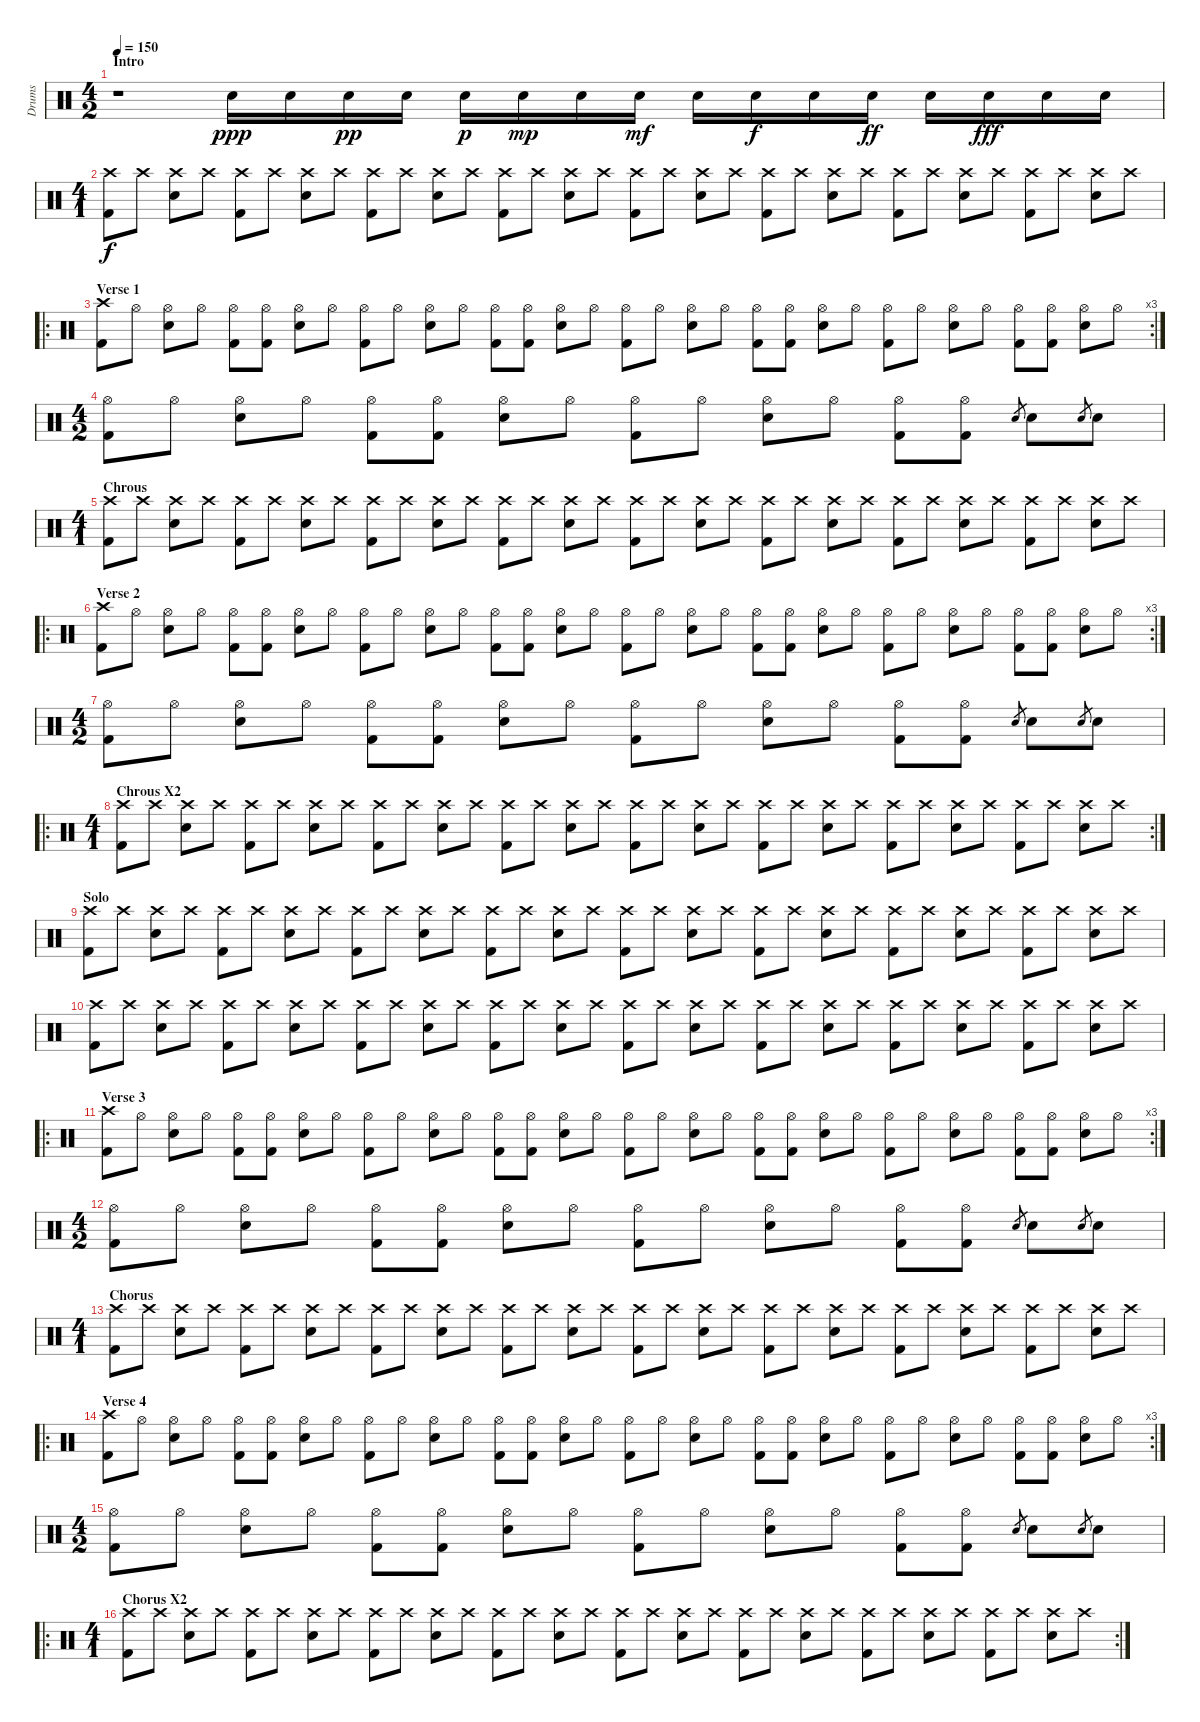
\track ("Drums" "Drums") {instrument percussion}
\staff {score}
\articulation defaults
\ts (4 2)
\section ("" "Intro")
\tempo 150
\clef neutral
\ks c
r.1{dy ppp} "Electric Snare (hit)".16 "Electric Snare (hit)".16 "Electric Snare (hit)".16{dy pp} "Electric Snare (hit)".16 "Electric Snare (hit)".16{dy p} "Electric Snare (hit)".16{dy mp} "Electric Snare (hit)".16 "Electric Snare (hit)".16{dy mf} "Electric Snare (hit)".16 "Electric Snare (hit)".16{dy f} "Electric Snare (hit)".16 "Electric Snare (hit)".16{dy ff} "Electric Snare (hit)".16 "Electric Snare (hit)".16{dy fff} "Electric Snare (hit)".16 "Electric Snare (hit)".16 |
\ts (4 1)
("Crash high (hit)" "Kick (hit) 2").8{dy f} "Crash high (hit)".8 ("Crash high (hit)" "Electric Snare (hit)").8 "Crash high (hit)".8 ("Crash high (hit)" "Kick (hit) 2").8 "Crash high (hit)".8 ("Crash high (hit)" "Electric Snare (hit)").8 "Crash high (hit)".8 ("Crash high (hit)" "Kick (hit) 2").8 "Crash high (hit)".8 ("Crash high (hit)" "Electric Snare (hit)").8 "Crash high (hit)".8 ("Crash high (hit)" "Kick (hit) 2").8 "Crash high (hit)".8 ("Crash high (hit)" "Electric Snare (hit)").8 "Crash high (hit)".8 ("Crash high (hit)" "Kick (hit) 2").8 "Crash high (hit)".8 ("Crash high (hit)" "Electric Snare (hit)").8 "Crash high (hit)".8 ("Crash high (hit)" "Kick (hit) 2").8 "Crash high (hit)".8 ("Crash high (hit)" "Electric Snare (hit)").8 "Crash high (hit)".8 ("Crash high (hit)" "Kick (hit) 2").8 "Crash high (hit)".8 ("Crash high (hit)" "Electric Snare (hit)").8 "Crash high (hit)".8 ("Crash high (hit)" "Kick (hit) 2").8 "Crash high (hit)".8 ("Crash high (hit)" "Electric Snare (hit)").8 "Crash high (hit)".8 |
\ro
\rc 3
\section ("" "Verse 1")
("Crash high (hit)" "Kick (hit) 2").8 "Hi-Hat (open)".8 ("Hi-Hat (open)" "Electric Snare (hit)").8 "Hi-Hat (open)".8 ("Hi-Hat (open)" "Kick (hit) 2").8 ("Hi-Hat (open)" "Kick (hit) 2").8 ("Hi-Hat (open)" "Electric Snare (hit)").8 "Hi-Hat (open)".8 ("Hi-Hat (open)" "Kick (hit) 2").8 "Hi-Hat (open)".8 ("Hi-Hat (open)" "Electric Snare (hit)").8 "Hi-Hat (open)".8 ("Hi-Hat (open)" "Kick (hit) 2").8 ("Hi-Hat (open)" "Kick (hit) 2").8 ("Hi-Hat (open)" "Electric Snare (hit)").8 "Hi-Hat (open)".8 ("Hi-Hat (open)" "Kick (hit) 2").8 "Hi-Hat (open)".8 ("Hi-Hat (open)" "Electric Snare (hit)").8 "Hi-Hat (open)".8 ("Hi-Hat (open)" "Kick (hit) 2").8 ("Hi-Hat (open)" "Kick (hit) 2").8 ("Hi-Hat (open)" "Electric Snare (hit)").8 "Hi-Hat (open)".8 ("Hi-Hat (open)" "Kick (hit) 2").8 "Hi-Hat (open)".8 ("Hi-Hat (open)" "Electric Snare (hit)").8 "Hi-Hat (open)".8 ("Hi-Hat (open)" "Kick (hit) 2").8 ("Hi-Hat (open)" "Kick (hit) 2").8 ("Hi-Hat (open)" "Electric Snare (hit)").8 "Hi-Hat (open)".8 |
\ts (4 2)
("Hi-Hat (open)" "Kick (hit) 2").8 "Hi-Hat (open)".8 ("Hi-Hat (open)" "Electric Snare (hit)").8 "Hi-Hat (open)".8 ("Hi-Hat (open)" "Kick (hit) 2").8 ("Hi-Hat (open)" "Kick (hit) 2").8 ("Hi-Hat (open)" "Electric Snare (hit)").8 "Hi-Hat (open)".8 ("Hi-Hat (open)" "Kick (hit) 2").8 "Hi-Hat (open)".8 ("Hi-Hat (open)" "Electric Snare (hit)").8 "Hi-Hat (open)".8 ("Hi-Hat (open)" "Kick (hit) 2").8 ("Hi-Hat (open)" "Kick (hit) 2").8 "Electric Snare (hit)".8{gr} "Electric Snare (hit)".8 "Electric Snare (hit)".8{gr} "Electric Snare (hit)".8 |
\ts (4 1)
\section ("" "Chrous")
("Crash high (hit)" "Kick (hit) 2").8 "Crash high (hit)".8 ("Crash high (hit)" "Electric Snare (hit)").8 "Crash high (hit)".8 ("Crash high (hit)" "Kick (hit) 2").8 "Crash high (hit)".8 ("Crash high (hit)" "Electric Snare (hit)").8 "Crash high (hit)".8 ("Crash high (hit)" "Kick (hit) 2").8 "Crash high (hit)".8 ("Crash high (hit)" "Electric Snare (hit)").8 "Crash high (hit)".8 ("Crash high (hit)" "Kick (hit) 2").8 "Crash high (hit)".8 ("Crash high (hit)" "Electric Snare (hit)").8 "Crash high (hit)".8 ("Crash high (hit)" "Kick (hit) 2").8 "Crash high (hit)".8 ("Crash high (hit)" "Electric Snare (hit)").8 "Crash high (hit)".8 ("Crash high (hit)" "Kick (hit) 2").8 "Crash high (hit)".8 ("Crash high (hit)" "Electric Snare (hit)").8 "Crash high (hit)".8 ("Crash high (hit)" "Kick (hit) 2").8 "Crash high (hit)".8 ("Crash high (hit)" "Electric Snare (hit)").8 "Crash high (hit)".8 ("Crash high (hit)" "Kick (hit) 2").8 "Crash high (hit)".8 ("Crash high (hit)" "Electric Snare (hit)").8 "Crash high (hit)".8 |
\ro
\rc 3
\section ("" "Verse 2")
("Crash high (hit)" "Kick (hit) 2").8 "Hi-Hat (open)".8 ("Hi-Hat (open)" "Electric Snare (hit)").8 "Hi-Hat (open)".8 ("Hi-Hat (open)" "Kick (hit) 2").8 ("Hi-Hat (open)" "Kick (hit) 2").8 ("Hi-Hat (open)" "Electric Snare (hit)").8 "Hi-Hat (open)".8 ("Hi-Hat (open)" "Kick (hit) 2").8 "Hi-Hat (open)".8 ("Hi-Hat (open)" "Electric Snare (hit)").8 "Hi-Hat (open)".8 ("Hi-Hat (open)" "Kick (hit) 2").8 ("Hi-Hat (open)" "Kick (hit) 2").8 ("Hi-Hat (open)" "Electric Snare (hit)").8 "Hi-Hat (open)".8 ("Hi-Hat (open)" "Kick (hit) 2").8 "Hi-Hat (open)".8 ("Hi-Hat (open)" "Electric Snare (hit)").8 "Hi-Hat (open)".8 ("Hi-Hat (open)" "Kick (hit) 2").8 ("Hi-Hat (open)" "Kick (hit) 2").8 ("Hi-Hat (open)" "Electric Snare (hit)").8 "Hi-Hat (open)".8 ("Hi-Hat (open)" "Kick (hit) 2").8 "Hi-Hat (open)".8 ("Hi-Hat (open)" "Electric Snare (hit)").8 "Hi-Hat (open)".8 ("Hi-Hat (open)" "Kick (hit) 2").8 ("Hi-Hat (open)" "Kick (hit) 2").8 ("Hi-Hat (open)" "Electric Snare (hit)").8 "Hi-Hat (open)".8 |
\ts (4 2)
("Hi-Hat (open)" "Kick (hit) 2").8 "Hi-Hat (open)".8 ("Hi-Hat (open)" "Electric Snare (hit)").8 "Hi-Hat (open)".8 ("Hi-Hat (open)" "Kick (hit) 2").8 ("Hi-Hat (open)" "Kick (hit) 2").8 ("Hi-Hat (open)" "Electric Snare (hit)").8 "Hi-Hat (open)".8 ("Hi-Hat (open)" "Kick (hit) 2").8 "Hi-Hat (open)".8 ("Hi-Hat (open)" "Electric Snare (hit)").8 "Hi-Hat (open)".8 ("Hi-Hat (open)" "Kick (hit) 2").8 ("Hi-Hat (open)" "Kick (hit) 2").8 "Electric Snare (hit)".8{gr} "Electric Snare (hit)".8 "Electric Snare (hit)".8{gr} "Electric Snare (hit)".8 |
\ro
\rc 2
\ts (4 1)
\section ("" "Chrous X2")
("Crash high (hit)" "Kick (hit) 2").8 "Crash high (hit)".8 ("Crash high (hit)" "Electric Snare (hit)").8 "Crash high (hit)".8 ("Crash high (hit)" "Kick (hit) 2").8 "Crash high (hit)".8 ("Crash high (hit)" "Electric Snare (hit)").8 "Crash high (hit)".8 ("Crash high (hit)" "Kick (hit) 2").8 "Crash high (hit)".8 ("Crash high (hit)" "Electric Snare (hit)").8 "Crash high (hit)".8 ("Crash high (hit)" "Kick (hit) 2").8 "Crash high (hit)".8 ("Crash high (hit)" "Electric Snare (hit)").8 "Crash high (hit)".8 ("Crash high (hit)" "Kick (hit) 2").8 "Crash high (hit)".8 ("Crash high (hit)" "Electric Snare (hit)").8 "Crash high (hit)".8 ("Crash high (hit)" "Kick (hit) 2").8 "Crash high (hit)".8 ("Crash high (hit)" "Electric Snare (hit)").8 "Crash high (hit)".8 ("Crash high (hit)" "Kick (hit) 2").8 "Crash high (hit)".8 ("Crash high (hit)" "Electric Snare (hit)").8 "Crash high (hit)".8 ("Crash high (hit)" "Kick (hit) 2").8 "Crash high (hit)".8 ("Crash high (hit)" "Electric Snare (hit)").8 "Crash high (hit)".8 |
\section ("" "Solo")
("Crash high (hit)" "Kick (hit) 2").8 "Crash high (hit)".8 ("Crash high (hit)" "Electric Snare (hit)").8 "Crash high (hit)".8 ("Crash high (hit)" "Kick (hit) 2").8 "Crash high (hit)".8 ("Crash high (hit)" "Electric Snare (hit)").8 "Crash high (hit)".8 ("Crash high (hit)" "Kick (hit) 2").8 "Crash high (hit)".8 ("Crash high (hit)" "Electric Snare (hit)").8 "Crash high (hit)".8 ("Crash high (hit)" "Kick (hit) 2").8 "Crash high (hit)".8 ("Crash high (hit)" "Electric Snare (hit)").8 "Crash high (hit)".8 ("Crash high (hit)" "Kick (hit) 2").8 "Crash high (hit)".8 ("Crash high (hit)" "Electric Snare (hit)").8 "Crash high (hit)".8 ("Crash high (hit)" "Kick (hit) 2").8 "Crash high (hit)".8 ("Crash high (hit)" "Electric Snare (hit)").8 "Crash high (hit)".8 ("Crash high (hit)" "Kick (hit) 2").8 "Crash high (hit)".8 ("Crash high (hit)" "Electric Snare (hit)").8 "Crash high (hit)".8 ("Crash high (hit)" "Kick (hit) 2").8 "Crash high (hit)".8 ("Crash high (hit)" "Electric Snare (hit)").8 "Crash high (hit)".8 |
("Crash high (hit)" "Kick (hit) 2").8 "Crash high (hit)".8 ("Crash high (hit)" "Electric Snare (hit)").8 "Crash high (hit)".8 ("Crash high (hit)" "Kick (hit) 2").8 "Crash high (hit)".8 ("Crash high (hit)" "Electric Snare (hit)").8 "Crash high (hit)".8 ("Crash high (hit)" "Kick (hit) 2").8 "Crash high (hit)".8 ("Crash high (hit)" "Electric Snare (hit)").8 "Crash high (hit)".8 ("Crash high (hit)" "Kick (hit) 2").8 "Crash high (hit)".8 ("Crash high (hit)" "Electric Snare (hit)").8 "Crash high (hit)".8 ("Crash high (hit)" "Kick (hit) 2").8 "Crash high (hit)".8 ("Crash high (hit)" "Electric Snare (hit)").8 "Crash high (hit)".8 ("Crash high (hit)" "Kick (hit) 2").8 "Crash high (hit)".8 ("Crash high (hit)" "Electric Snare (hit)").8 "Crash high (hit)".8 ("Crash high (hit)" "Kick (hit) 2").8 "Crash high (hit)".8 ("Crash high (hit)" "Electric Snare (hit)").8 "Crash high (hit)".8 ("Crash high (hit)" "Kick (hit) 2").8 "Crash high (hit)".8 ("Crash high (hit)" "Electric Snare (hit)").8 "Crash high (hit)".8 |
\ro
\rc 3
\section ("" "Verse 3")
("Crash high (hit)" "Kick (hit) 2").8 "Hi-Hat (open)".8 ("Hi-Hat (open)" "Electric Snare (hit)").8 "Hi-Hat (open)".8 ("Hi-Hat (open)" "Kick (hit) 2").8 ("Hi-Hat (open)" "Kick (hit) 2").8 ("Hi-Hat (open)" "Electric Snare (hit)").8 "Hi-Hat (open)".8 ("Hi-Hat (open)" "Kick (hit) 2").8 "Hi-Hat (open)".8 ("Hi-Hat (open)" "Electric Snare (hit)").8 "Hi-Hat (open)".8 ("Hi-Hat (open)" "Kick (hit) 2").8 ("Hi-Hat (open)" "Kick (hit) 2").8 ("Hi-Hat (open)" "Electric Snare (hit)").8 "Hi-Hat (open)".8 ("Hi-Hat (open)" "Kick (hit) 2").8 "Hi-Hat (open)".8 ("Hi-Hat (open)" "Electric Snare (hit)").8 "Hi-Hat (open)".8 ("Hi-Hat (open)" "Kick (hit) 2").8 ("Hi-Hat (open)" "Kick (hit) 2").8 ("Hi-Hat (open)" "Electric Snare (hit)").8 "Hi-Hat (open)".8 ("Hi-Hat (open)" "Kick (hit) 2").8 "Hi-Hat (open)".8 ("Hi-Hat (open)" "Electric Snare (hit)").8 "Hi-Hat (open)".8 ("Hi-Hat (open)" "Kick (hit) 2").8 ("Hi-Hat (open)" "Kick (hit) 2").8 ("Hi-Hat (open)" "Electric Snare (hit)").8 "Hi-Hat (open)".8 |
\ts (4 2)
("Hi-Hat (open)" "Kick (hit) 2").8 "Hi-Hat (open)".8 ("Hi-Hat (open)" "Electric Snare (hit)").8 "Hi-Hat (open)".8 ("Hi-Hat (open)" "Kick (hit) 2").8 ("Hi-Hat (open)" "Kick (hit) 2").8 ("Hi-Hat (open)" "Electric Snare (hit)").8 "Hi-Hat (open)".8 ("Hi-Hat (open)" "Kick (hit) 2").8 "Hi-Hat (open)".8 ("Hi-Hat (open)" "Electric Snare (hit)").8 "Hi-Hat (open)".8 ("Hi-Hat (open)" "Kick (hit) 2").8 ("Hi-Hat (open)" "Kick (hit) 2").8 "Electric Snare (hit)".8{gr} "Electric Snare (hit)".8 "Electric Snare (hit)".8{gr} "Electric Snare (hit)".8 |
\ts (4 1)
\section ("" "Chorus")
("Crash high (hit)" "Kick (hit) 2").8 "Crash high (hit)".8 ("Crash high (hit)" "Electric Snare (hit)").8 "Crash high (hit)".8 ("Crash high (hit)" "Kick (hit) 2").8 "Crash high (hit)".8 ("Crash high (hit)" "Electric Snare (hit)").8 "Crash high (hit)".8 ("Crash high (hit)" "Kick (hit) 2").8 "Crash high (hit)".8 ("Crash high (hit)" "Electric Snare (hit)").8 "Crash high (hit)".8 ("Crash high (hit)" "Kick (hit) 2").8 "Crash high (hit)".8 ("Crash high (hit)" "Electric Snare (hit)").8 "Crash high (hit)".8 ("Crash high (hit)" "Kick (hit) 2").8 "Crash high (hit)".8 ("Crash high (hit)" "Electric Snare (hit)").8 "Crash high (hit)".8 ("Crash high (hit)" "Kick (hit) 2").8 "Crash high (hit)".8 ("Crash high (hit)" "Electric Snare (hit)").8 "Crash high (hit)".8 ("Crash high (hit)" "Kick (hit) 2").8 "Crash high (hit)".8 ("Crash high (hit)" "Electric Snare (hit)").8 "Crash high (hit)".8 ("Crash high (hit)" "Kick (hit) 2").8 "Crash high (hit)".8 ("Crash high (hit)" "Electric Snare (hit)").8 "Crash high (hit)".8 |
\ro
\rc 3
\section ("" "Verse 4")
("Crash high (hit)" "Kick (hit) 2").8 "Hi-Hat (open)".8 ("Hi-Hat (open)" "Electric Snare (hit)").8 "Hi-Hat (open)".8 ("Hi-Hat (open)" "Kick (hit) 2").8 ("Hi-Hat (open)" "Kick (hit) 2").8 ("Hi-Hat (open)" "Electric Snare (hit)").8 "Hi-Hat (open)".8 ("Hi-Hat (open)" "Kick (hit) 2").8 "Hi-Hat (open)".8 ("Hi-Hat (open)" "Electric Snare (hit)").8 "Hi-Hat (open)".8 ("Hi-Hat (open)" "Kick (hit) 2").8 ("Hi-Hat (open)" "Kick (hit) 2").8 ("Hi-Hat (open)" "Electric Snare (hit)").8 "Hi-Hat (open)".8 ("Hi-Hat (open)" "Kick (hit) 2").8 "Hi-Hat (open)".8 ("Hi-Hat (open)" "Electric Snare (hit)").8 "Hi-Hat (open)".8 ("Hi-Hat (open)" "Kick (hit) 2").8 ("Hi-Hat (open)" "Kick (hit) 2").8 ("Hi-Hat (open)" "Electric Snare (hit)").8 "Hi-Hat (open)".8 ("Hi-Hat (open)" "Kick (hit) 2").8 "Hi-Hat (open)".8 ("Hi-Hat (open)" "Electric Snare (hit)").8 "Hi-Hat (open)".8 ("Hi-Hat (open)" "Kick (hit) 2").8 ("Hi-Hat (open)" "Kick (hit) 2").8 ("Hi-Hat (open)" "Electric Snare (hit)").8 "Hi-Hat (open)".8 |
\ts (4 2)
("Hi-Hat (open)" "Kick (hit) 2").8 "Hi-Hat (open)".8 ("Hi-Hat (open)" "Electric Snare (hit)").8 "Hi-Hat (open)".8 ("Hi-Hat (open)" "Kick (hit) 2").8 ("Hi-Hat (open)" "Kick (hit) 2").8 ("Hi-Hat (open)" "Electric Snare (hit)").8 "Hi-Hat (open)".8 ("Hi-Hat (open)" "Kick (hit) 2").8 "Hi-Hat (open)".8 ("Hi-Hat (open)" "Electric Snare (hit)").8 "Hi-Hat (open)".8 ("Hi-Hat (open)" "Kick (hit) 2").8 ("Hi-Hat (open)" "Kick (hit) 2").8 "Electric Snare (hit)".8{gr} "Electric Snare (hit)".8 "Electric Snare (hit)".8{gr} "Electric Snare (hit)".8 |
\ro
\rc 2
\ts (4 1)
\section ("" "Chorus X2")
("Crash high (hit)" "Kick (hit) 2").8 "Crash high (hit)".8 ("Crash high (hit)" "Electric Snare (hit)").8 "Crash high (hit)".8 ("Crash high (hit)" "Kick (hit) 2").8 "Crash high (hit)".8 ("Crash high (hit)" "Electric Snare (hit)").8 "Crash high (hit)".8 ("Crash high (hit)" "Kick (hit) 2").8 "Crash high (hit)".8 ("Crash high (hit)" "Electric Snare (hit)").8 "Crash high (hit)".8 ("Crash high (hit)" "Kick (hit) 2").8 "Crash high (hit)".8 ("Crash high (hit)" "Electric Snare (hit)").8 "Crash high (hit)".8 ("Crash high (hit)" "Kick (hit) 2").8 "Crash high (hit)".8 ("Crash high (hit)" "Electric Snare (hit)").8 "Crash high (hit)".8 ("Crash high (hit)" "Kick (hit) 2").8 "Crash high (hit)".8 ("Crash high (hit)" "Electric Snare (hit)").8 "Crash high (hit)".8 ("Crash high (hit)" "Kick (hit) 2").8 "Crash high (hit)".8 ("Crash high (hit)" "Electric Snare (hit)").8 "Crash high (hit)".8 ("Crash high (hit)" "Kick (hit) 2").8 "Crash high (hit)".8 ("Crash high (hit)" "Electric Snare (hit)").8 "Crash high (hit)".8
